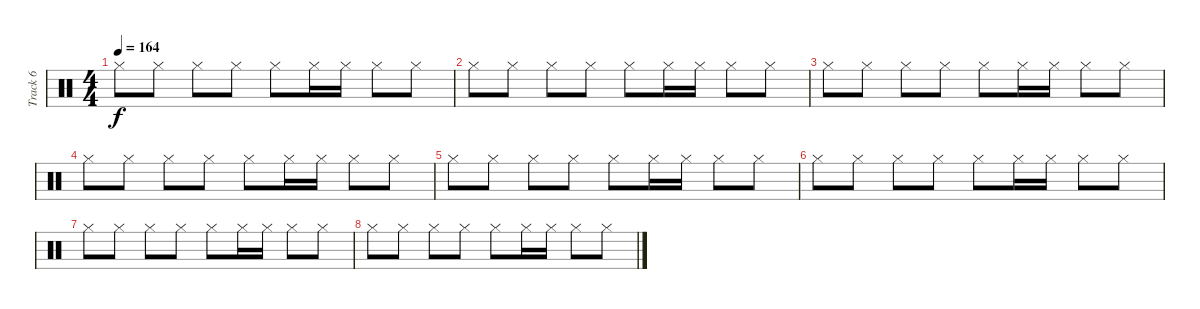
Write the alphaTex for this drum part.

\track ("Track 6" "Track 6") {instrument percussion}
\staff {score}
\articulation defaults
\ts (4 4)
\tempo 164
\clef neutral
\ks c "Hi-Hat (closed)".8{dy f} "Hi-Hat (closed)".8 "Hi-Hat (closed)".8 "Hi-Hat (closed)".8 "Hi-Hat (closed)".8 "Hi-Hat (closed)".16 "Hi-Hat (closed)".16 "Hi-Hat (closed)".8 "Hi-Hat (closed)".8
|
"Hi-Hat (closed)".8 "Hi-Hat (closed)".8 "Hi-Hat (closed)".8 "Hi-Hat (closed)".8 "Hi-Hat (closed)".8 "Hi-Hat (closed)".16 "Hi-Hat (closed)".16 "Hi-Hat (closed)".8 "Hi-Hat (closed)".8 |
"Hi-Hat (closed)".8 "Hi-Hat (closed)".8 "Hi-Hat (closed)".8 "Hi-Hat (closed)".8 "Hi-Hat (closed)".8 "Hi-Hat (closed)".16 "Hi-Hat (closed)".16 "Hi-Hat (closed)".8 "Hi-Hat (closed)".8 |
"Hi-Hat (closed)".8 "Hi-Hat (closed)".8 "Hi-Hat (closed)".8 "Hi-Hat (closed)".8 "Hi-Hat (closed)".8 "Hi-Hat (closed)".16 "Hi-Hat (closed)".16 "Hi-Hat (closed)".8 "Hi-Hat (closed)".8 |
"Hi-Hat (closed)".8 "Hi-Hat (closed)".8 "Hi-Hat (closed)".8 "Hi-Hat (closed)".8 "Hi-Hat (closed)".8 "Hi-Hat (closed)".16 "Hi-Hat (closed)".16 "Hi-Hat (closed)".8 "Hi-Hat (closed)".8 |
"Hi-Hat (closed)".8 "Hi-Hat (closed)".8 "Hi-Hat (closed)".8 "Hi-Hat (closed)".8 "Hi-Hat (closed)".8 "Hi-Hat (closed)".16 "Hi-Hat (closed)".16 "Hi-Hat (closed)".8 "Hi-Hat (closed)".8 |
"Hi-Hat (closed)".8 "Hi-Hat (closed)".8 "Hi-Hat (closed)".8 "Hi-Hat (closed)".8 "Hi-Hat (closed)".8 "Hi-Hat (closed)".16 "Hi-Hat (closed)".16 "Hi-Hat (closed)".8 "Hi-Hat (closed)".8 |
"Hi-Hat (closed)".8 "Hi-Hat (closed)".8 "Hi-Hat (closed)".8 "Hi-Hat (closed)".8 "Hi-Hat (closed)".8 "Hi-Hat (closed)".16 "Hi-Hat (closed)".16 "Hi-Hat (closed)".8 "Hi-Hat (closed)".8
